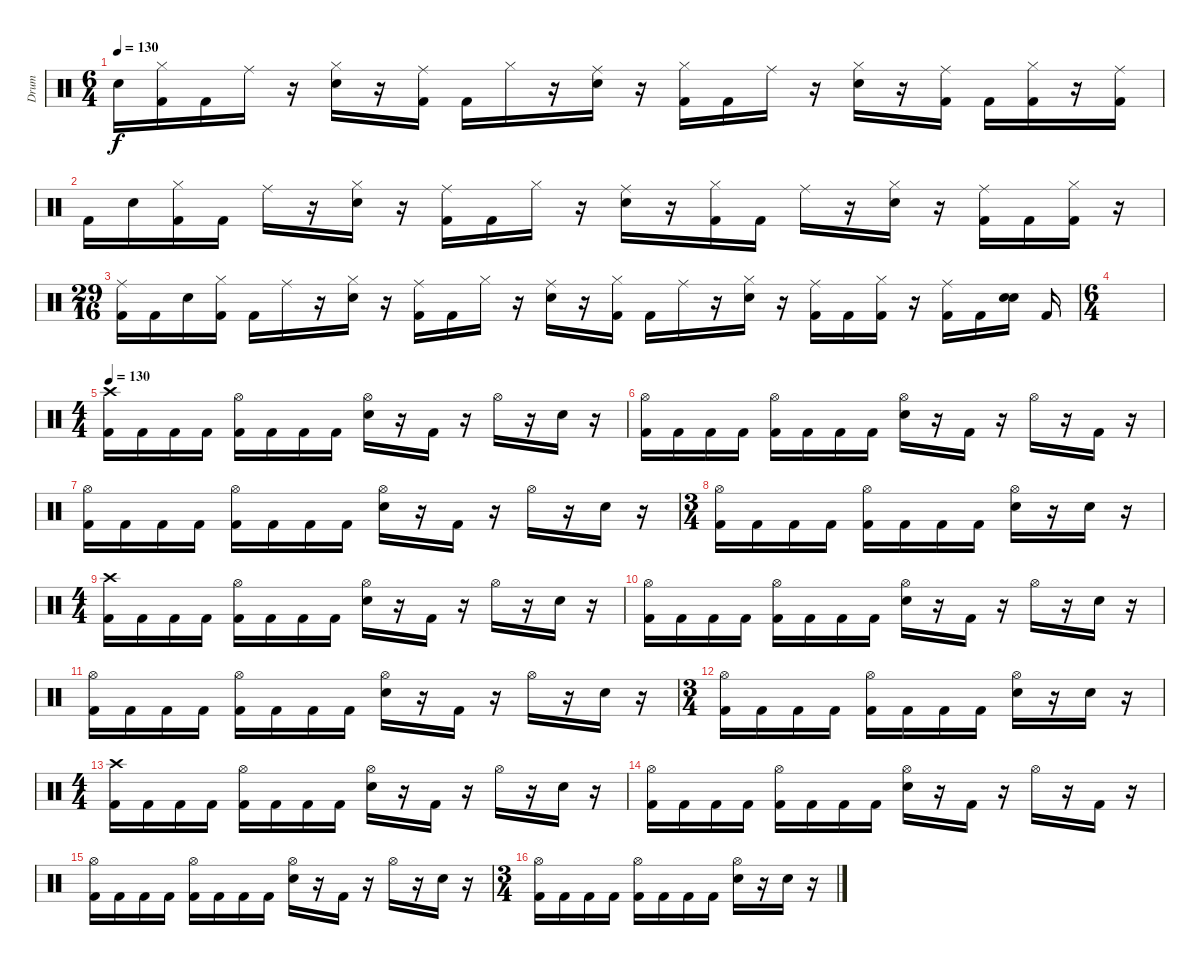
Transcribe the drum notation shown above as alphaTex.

\track ("Drum" "Drum") {instrument percussion}
\staff {score}
\articulation defaults
\ts (6 4)
\tempo 130
\clef neutral
\ks c "Snare (hit) 2".16{dy f}
("Hi-Hat (closed)" "Kick (hit) 2").16 "Kick (hit) 2".16 "Ride (middle)".16 r.16 ("Hi-Hat (closed)" "Snare (hit) 2").16 r.16 ("Ride (middle)" "Kick (hit) 2").16 "Kick (hit) 2".16 "Hi-Hat (closed)".16 r.16 ("Ride (middle)" "Snare (hit) 2").16 r.16 ("Hi-Hat (closed)" "Kick (hit) 2").16 "Kick (hit) 2".16 "Ride (middle)".16 r.16 ("Hi-Hat (closed)" "Snare (hit) 2").16 r.16 ("Ride (middle)" "Kick (hit) 2").16 "Kick (hit) 2".16 ("Hi-Hat (closed)" "Kick (hit) 2").16 r.16 ("Ride (middle)" "Kick (hit) 2").16 |
"Kick (hit) 2".16 "Snare (hit) 2".16 ("Hi-Hat (closed)" "Kick (hit) 2").16 "Kick (hit) 2".16 "Ride (middle)".16 r.16 ("Hi-Hat (closed)" "Snare (hit) 2").16 r.16 ("Ride (middle)" "Kick (hit) 2").16 "Kick (hit) 2".16 "Hi-Hat (closed)".16 r.16 ("Ride (middle)" "Snare (hit) 2").16 r.16 ("Hi-Hat (closed)" "Kick (hit) 2").16 "Kick (hit) 2".16 "Ride (middle)".16 r.16 ("Hi-Hat (closed)" "Snare (hit) 2").16 r.16 ("Ride (middle)" "Kick (hit) 2").16 "Kick (hit) 2".16 ("Hi-Hat (closed)" "Kick (hit) 2").16 r.16 |
\ts (29 16)
("Ride (middle)" "Kick (hit) 2").16 "Kick (hit) 2".16 "Snare (hit) 2".16 ("Hi-Hat (closed)" "Kick (hit) 2").16 "Kick (hit) 2".16 "Ride (middle)".16 r.16 ("Hi-Hat (closed)" "Snare (hit) 2").16 r.16 ("Ride (middle)" "Kick (hit) 2").16 "Kick (hit) 2".16 "Hi-Hat (closed)".16 r.16 ("Ride (middle)" "Snare (hit) 2").16 r.16 ("Hi-Hat (closed)" "Kick (hit) 2").16 "Kick (hit) 2".16 "Ride (middle)".16 r.16 ("Hi-Hat (closed)" "Snare (hit) 2").16 r.16 ("Ride (middle)" "Kick (hit) 2").16 "Kick (hit) 2".16 ("Hi-Hat (closed)" "Kick (hit) 2").16 r.16 ("Ride (middle)" "Kick (hit) 2").16 "Kick (hit) 2".16 ("Snare (hit) 2" "Snare (hit) 2").16 "Kick (hit) 2".16 |
\ts (6 4)
|
\ts (4 4)
\tempo 130
("Crash high (hit)" "Kick (hit) 2").16 "Kick (hit) 2".16 "Kick (hit) 2".16 "Kick (hit) 2".16 ("Hi-Hat (open)" "Kick (hit) 2").16 "Kick (hit) 2".16 "Kick (hit) 2".16 "Kick (hit) 2".16 ("Hi-Hat (open)" "Snare (hit) 2").16 r.16 "Kick (hit) 2".16 r.16 "Hi-Hat (open)".16 r.16 "Snare (hit) 2".16 r.16 |
("Hi-Hat (open)" "Kick (hit) 2").16 "Kick (hit) 2".16 "Kick (hit) 2".16 "Kick (hit) 2".16 ("Hi-Hat (open)" "Kick (hit) 2").16 "Kick (hit) 2".16 "Kick (hit) 2".16 "Kick (hit) 2".16 ("Hi-Hat (open)" "Snare (hit) 2").16 r.16 "Kick (hit) 2".16 r.16 "Hi-Hat (open)".16 r.16 "Kick (hit) 2".16 r.16 |
("Hi-Hat (open)" "Kick (hit) 2").16 "Kick (hit) 2".16 "Kick (hit) 2".16 "Kick (hit) 2".16 ("Hi-Hat (open)" "Kick (hit) 2").16 "Kick (hit) 2".16 "Kick (hit) 2".16 "Kick (hit) 2".16 ("Hi-Hat (open)" "Snare (hit) 2").16 r.16 "Kick (hit) 2".16 r.16 "Hi-Hat (open)".16 r.16 "Snare (hit) 2".16 r.16 |
\ts (3 4)
("Hi-Hat (open)" "Kick (hit) 2").16 "Kick (hit) 2".16 "Kick (hit) 2".16 "Kick (hit) 2".16 ("Hi-Hat (open)" "Kick (hit) 2").16 "Kick (hit) 2".16 "Kick (hit) 2".16 "Kick (hit) 2".16 ("Hi-Hat (open)" "Snare (hit) 2").16 r.16 "Snare (hit) 2".16 r.16 |
\ts (4 4)
("Crash high (hit)" "Kick (hit) 2").16 "Kick (hit) 2".16 "Kick (hit) 2".16 "Kick (hit) 2".16 ("Hi-Hat (open)" "Kick (hit) 2").16 "Kick (hit) 2".16 "Kick (hit) 2".16 "Kick (hit) 2".16 ("Hi-Hat (open)" "Snare (hit) 2").16 r.16 "Kick (hit) 2".16 r.16 "Hi-Hat (open)".16 r.16 "Snare (hit) 2".16 r.16 |
("Hi-Hat (open)" "Kick (hit) 2").16 "Kick (hit) 2".16 "Kick (hit) 2".16 "Kick (hit) 2".16 ("Hi-Hat (open)" "Kick (hit) 2").16 "Kick (hit) 2".16 "Kick (hit) 2".16 "Kick (hit) 2".16 ("Hi-Hat (open)" "Snare (hit) 2").16 r.16 "Kick (hit) 2".16 r.16 "Hi-Hat (open)".16 r.16 "Snare (hit) 2".16 r.16 |
("Hi-Hat (open)" "Kick (hit) 2").16 "Kick (hit) 2".16 "Kick (hit) 2".16 "Kick (hit) 2".16 ("Hi-Hat (open)" "Kick (hit) 2").16 "Kick (hit) 2".16 "Kick (hit) 2".16 "Kick (hit) 2".16 ("Hi-Hat (open)" "Snare (hit) 2").16 r.16 "Kick (hit) 2".16 r.16 "Hi-Hat (open)".16 r.16 "Snare (hit) 2".16 r.16 |
\ts (3 4)
("Hi-Hat (open)" "Kick (hit) 2").16 "Kick (hit) 2".16 "Kick (hit) 2".16 "Kick (hit) 2".16 ("Hi-Hat (open)" "Kick (hit) 2").16 "Kick (hit) 2".16 "Kick (hit) 2".16 "Kick (hit) 2".16 ("Hi-Hat (open)" "Snare (hit) 2").16 r.16 "Snare (hit) 2".16 r.16 |
\ts (4 4)
("Crash high (hit)" "Kick (hit) 2").16 "Kick (hit) 2".16 "Kick (hit) 2".16 "Kick (hit) 2".16 ("Hi-Hat (open)" "Kick (hit) 2").16 "Kick (hit) 2".16 "Kick (hit) 2".16 "Kick (hit) 2".16 ("Hi-Hat (open)" "Snare (hit) 2").16 r.16 "Kick (hit) 2".16 r.16 "Hi-Hat (open)".16 r.16 "Snare (hit) 2".16 r.16 |
("Hi-Hat (open)" "Kick (hit) 2").16 "Kick (hit) 2".16 "Kick (hit) 2".16 "Kick (hit) 2".16 ("Hi-Hat (open)" "Kick (hit) 2").16 "Kick (hit) 2".16 "Kick (hit) 2".16 "Kick (hit) 2".16 ("Hi-Hat (open)" "Snare (hit) 2").16 r.16 "Kick (hit) 2".16 r.16 "Hi-Hat (open)".16 r.16 "Kick (hit) 2".16 r.16 |
("Hi-Hat (open)" "Kick (hit) 2").16 "Kick (hit) 2".16 "Kick (hit) 2".16 "Kick (hit) 2".16 ("Hi-Hat (open)" "Kick (hit) 2").16 "Kick (hit) 2".16 "Kick (hit) 2".16 "Kick (hit) 2".16 ("Hi-Hat (open)" "Snare (hit) 2").16 r.16 "Kick (hit) 2".16 r.16 "Hi-Hat (open)".16 r.16 "Snare (hit) 2".16 r.16 |
\ts (3 4)
("Hi-Hat (open)" "Kick (hit) 2").16 "Kick (hit) 2".16 "Kick (hit) 2".16 "Kick (hit) 2".16 ("Hi-Hat (open)" "Kick (hit) 2").16 "Kick (hit) 2".16 "Kick (hit) 2".16 "Kick (hit) 2".16 ("Hi-Hat (open)" "Snare (hit) 2").16 r.16 "Snare (hit) 2".16 r.16
